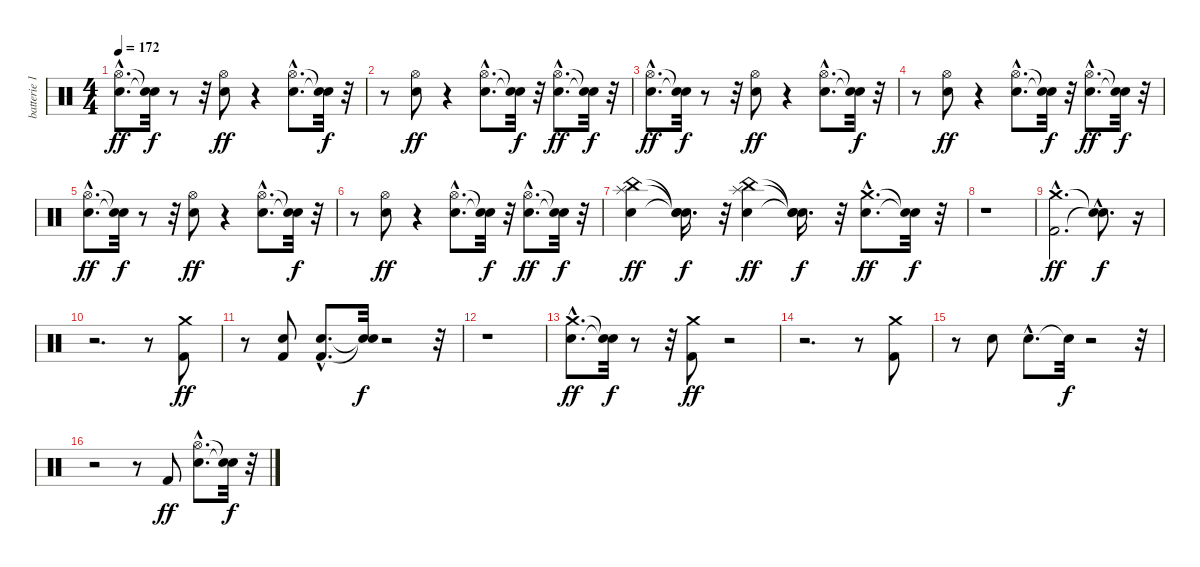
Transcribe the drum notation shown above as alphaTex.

\track ("batterie 1" "batterie 1") {instrument percussion}
\staff {score}
\articulation defaults
\ts (4 4)
\tempo 172
\clef neutral
\ks c
("Electric Snare (hit)"{hac} "Hi-Hat (open)"{hac}).8{d dy ff} ("Snare (hit)"{t} "Snare (hit)"{t}).32{dy f} r.8 r.32 ("Electric Snare (hit)" "Hi-Hat (open)").8{dy ff} r.4 ("Electric Snare (hit)"{hac} "Hi-Hat (open)"{hac}).8{d} ("Snare (hit)"{t} "Snare (hit)"{t}).32{dy f} r.32 |
r.8 ("Electric Snare (hit)" "Hi-Hat (open)").8{dy ff} r.4 ("Electric Snare (hit)"{hac} "Hi-Hat (open)"{hac}).8{d} ("Snare (hit)"{t} "Snare (hit)"{t}).32{dy f} r.32 ("Electric Snare (hit)"{hac} "Hi-Hat (open)"{hac}).8{d dy ff} ("Snare (hit)"{t} "Snare (hit)"{t}).32{dy f} r.32 |
("Electric Snare (hit)"{hac} "Hi-Hat (open)"{hac}).8{d dy ff} ("Snare (hit)"{t} "Snare (hit)"{t}).32{dy f} r.8 r.32 ("Electric Snare (hit)" "Hi-Hat (open)").8{dy ff} r.4 ("Electric Snare (hit)"{hac} "Hi-Hat (open)"{hac}).8{d} ("Snare (hit)"{t} "Snare (hit)"{t}).32{dy f} r.32 |
r.8 ("Electric Snare (hit)" "Hi-Hat (open)").8{dy ff} r.4 ("Electric Snare (hit)"{hac} "Hi-Hat (open)"{hac}).8{d} ("Snare (hit)"{t} "Snare (hit)"{t}).32{dy f} r.32 ("Electric Snare (hit)"{hac} "Hi-Hat (open)"{hac}).8{d dy ff} ("Snare (hit)"{t} "Snare (hit)"{t}).32{dy f} r.32 |
("Electric Snare (hit)"{hac} "Hi-Hat (open)"{hac}).8{d dy ff} ("Snare (hit)"{t} "Snare (hit)"{t}).32{dy f} r.8 r.32 ("Electric Snare (hit)" "Hi-Hat (open)").8{dy ff} r.4 ("Electric Snare (hit)"{hac} "Hi-Hat (open)"{hac}).8{d} ("Snare (hit)"{t} "Snare (hit)"{t}).32{dy f} r.32 |
r.8 ("Electric Snare (hit)" "Hi-Hat (open)").8{dy ff} r.4 ("Electric Snare (hit)"{hac} "Hi-Hat (open)"{hac}).8{d} ("Snare (hit)"{t} "Snare (hit)"{t}).32{dy f} r.32 ("Electric Snare (hit)"{hac} "Hi-Hat (open)"{hac}).8{d dy ff} ("Snare (hit)"{t} "Snare (hit)"{t}).32{dy f} r.32 |
("Electric Snare (hit)" "China (hit)" "Splash (hit)").4{dy ff} ("Snare (hit)"{t} "Snare (hit)"{t} "Snare (hit)"{t}).16{d dy f} r.32 ("Electric Snare (hit)" "China (hit)" "Splash (hit)").4{dy ff} ("Snare (hit)"{t} "Snare (hit)"{t} "Snare (hit)"{t}).16{d dy f} r.32 ("Electric Snare (hit)"{hac} "Crash medium (hit)"{hac}).8{d dy ff} ("Snare (hit)"{t} "Snare (hit)"{t}).32{dy f} r.32 |
r.1 |
("Kick (hit) 2"{hac} "Crash medium (hit)"{hac}).2{d dy ff} ("Snare (hit)"{hac t} "Snare (hit)"{hac t}).8{d dy f} r.16 |
r.2{d} r.8 ("Kick (hit) 2" "Crash medium (hit)").8{dy ff} |
r.8 ("Kick (hit) 2" "Electric Snare (hit)").8 ("Kick (hit) 2"{hac} "Electric Snare (hit)"{hac}).8{d} ("Snare (hit)"{t} "Snare (hit)"{t}).32{dy f} r.2 r.32 |
r.1 |
("Electric Snare (hit)"{hac} "Crash medium (hit)"{hac}).8{d dy ff} ("Snare (hit)"{t} "Snare (hit)"{t}).32{dy f} r.8 r.32 ("Kick (hit) 2" "Crash medium (hit)").8{dy ff} r.2 |
r.2{d} r.8 ("Kick (hit) 2" "Crash medium (hit)").8 |
r.8 "Electric Snare (hit)".8 "Electric Snare (hit)"{hac}.8{d} "Snare (hit)"{t}.32{dy f} r.2 r.32 |
r.2 r.8 "Kick (hit) 2".8{dy ff} ("Electric Snare (hit)"{hac} "Hi-Hat (open)"{hac}).8{d} ("Snare (hit)"{t} "Snare (hit)"{t}).32{dy f} r.32
